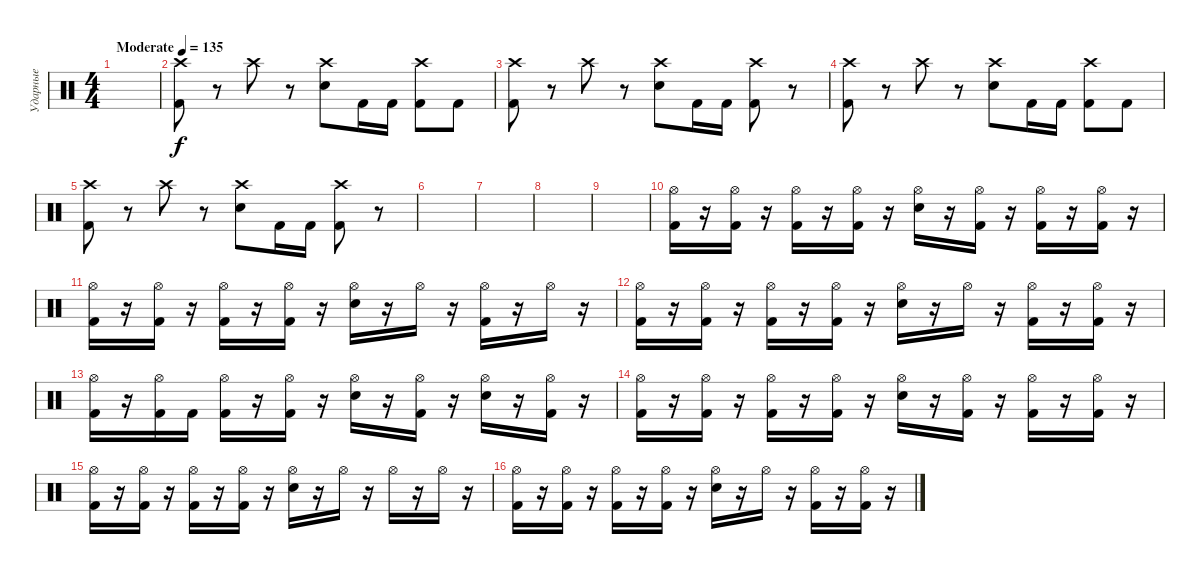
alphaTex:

\track ("Ударные" "Ударные") {instrument percussion}
\staff {score}
\articulation defaults
\ts (4 4)
\tempo (135 "Moderate")
\clef neutral
\ks c
|
("Kick (hit) 2" "Crash high (hit)").8 r.8 "Crash high (hit)".8 r.8 ("Electric Snare (hit)" "Crash high (hit)").8 "Kick (hit) 2".16 "Kick (hit) 2".16 ("Kick (hit) 2" "Crash high (hit)").8 "Kick (hit) 2".8 |
("Kick (hit) 2" "Crash high (hit)").8 r.8 "Crash high (hit)".8 r.8 ("Electric Snare (hit)" "Crash high (hit)").8 "Kick (hit) 2".16 "Kick (hit) 2".16 ("Kick (hit) 2" "Crash high (hit)").8 r.8 |
("Kick (hit) 2" "Crash high (hit)").8 r.8 "Crash high (hit)".8 r.8 ("Electric Snare (hit)" "Crash high (hit)").8 "Kick (hit) 2".16 "Kick (hit) 2".16 ("Kick (hit) 2" "Crash high (hit)").8 "Kick (hit) 2".8 |
("Kick (hit) 2" "Crash high (hit)").8 r.8 "Crash high (hit)".8 r.8 ("Electric Snare (hit)" "Crash high (hit)").8 "Kick (hit) 2".16 "Kick (hit) 2".16 ("Kick (hit) 2" "Crash high (hit)").8 r.8 |
|
|
|
|
("Kick (hit) 2" "Hi-Hat (open)").16 r.16 ("Kick (hit) 2" "Hi-Hat (open)").16 r.16 ("Kick (hit) 2" "Hi-Hat (open)").16 r.16 ("Kick (hit) 2" "Hi-Hat (open)").16 r.16 ("Electric Snare (hit)" "Hi-Hat (open)").16 r.16 ("Kick (hit) 2" "Hi-Hat (open)").16 r.16 ("Kick (hit) 2" "Hi-Hat (open)").16 r.16 ("Kick (hit) 2" "Hi-Hat (open)").16 r.16 |
("Kick (hit) 2" "Hi-Hat (open)").16 r.16 ("Kick (hit) 2" "Hi-Hat (open)").16 r.16 ("Kick (hit) 2" "Hi-Hat (open)").16 r.16 ("Kick (hit) 2" "Hi-Hat (open)").16 r.16 ("Electric Snare (hit)" "Hi-Hat (open)").16 r.16 "Hi-Hat (open)".16 r.16 ("Hi-Hat (open)" "Kick (hit) 2").16 r.16 "Hi-Hat (open)".16 r.16 |
("Kick (hit) 2" "Hi-Hat (open)").16 r.16 ("Kick (hit) 2" "Hi-Hat (open)").16 r.16 ("Kick (hit) 2" "Hi-Hat (open)").16 r.16 ("Kick (hit) 2" "Hi-Hat (open)").16 r.16 ("Electric Snare (hit)" "Hi-Hat (open)").16 r.16 "Hi-Hat (open)".16 r.16 ("Kick (hit) 2" "Hi-Hat (open)").16 r.16 ("Kick (hit) 2" "Hi-Hat (open)").16 r.16 |
("Hi-Hat (open)" "Kick (hit) 2").16 r.16 ("Hi-Hat (open)" "Kick (hit) 2").16 "Kick (hit) 2".16 ("Kick (hit) 2" "Hi-Hat (open)").16 r.16 ("Kick (hit) 2" "Hi-Hat (open)").16 r.16 ("Electric Snare (hit)" "Hi-Hat (open)").16 r.16 ("Kick (hit) 2" "Hi-Hat (open)").16 r.16 ("Electric Snare (hit)" "Hi-Hat (open)").16 r.16 ("Kick (hit) 2" "Hi-Hat (open)").16 r.16 |
("Kick (hit) 2" "Hi-Hat (open)").16 r.16 ("Kick (hit) 2" "Hi-Hat (open)").16 r.16 ("Kick (hit) 2" "Hi-Hat (open)").16 r.16 ("Kick (hit) 2" "Hi-Hat (open)").16 r.16 ("Electric Snare (hit)" "Hi-Hat (open)").16 r.16 ("Kick (hit) 2" "Hi-Hat (open)").16 r.16 ("Kick (hit) 2" "Hi-Hat (open)").16 r.16 ("Kick (hit) 2" "Hi-Hat (open)").16 r.16 |
("Kick (hit) 2" "Hi-Hat (open)").16 r.16 ("Kick (hit) 2" "Hi-Hat (open)").16 r.16 ("Kick (hit) 2" "Hi-Hat (open)").16 r.16 ("Kick (hit) 2" "Hi-Hat (open)").16 r.16 ("Electric Snare (hit)" "Hi-Hat (open)").16 r.16 "Hi-Hat (open)".16 r.16 "Hi-Hat (open)".16 r.16 "Hi-Hat (open)".16 r.16 |
("Kick (hit) 2" "Hi-Hat (open)").16 r.16 ("Kick (hit) 2" "Hi-Hat (open)").16 r.16 ("Kick (hit) 2" "Hi-Hat (open)").16 r.16 ("Kick (hit) 2" "Hi-Hat (open)").16 r.16 ("Electric Snare (hit)" "Hi-Hat (open)").16 r.16 "Hi-Hat (open)".16 r.16 ("Kick (hit) 2" "Hi-Hat (open)").16 r.16 ("Kick (hit) 2" "Hi-Hat (open)").16 r.16
